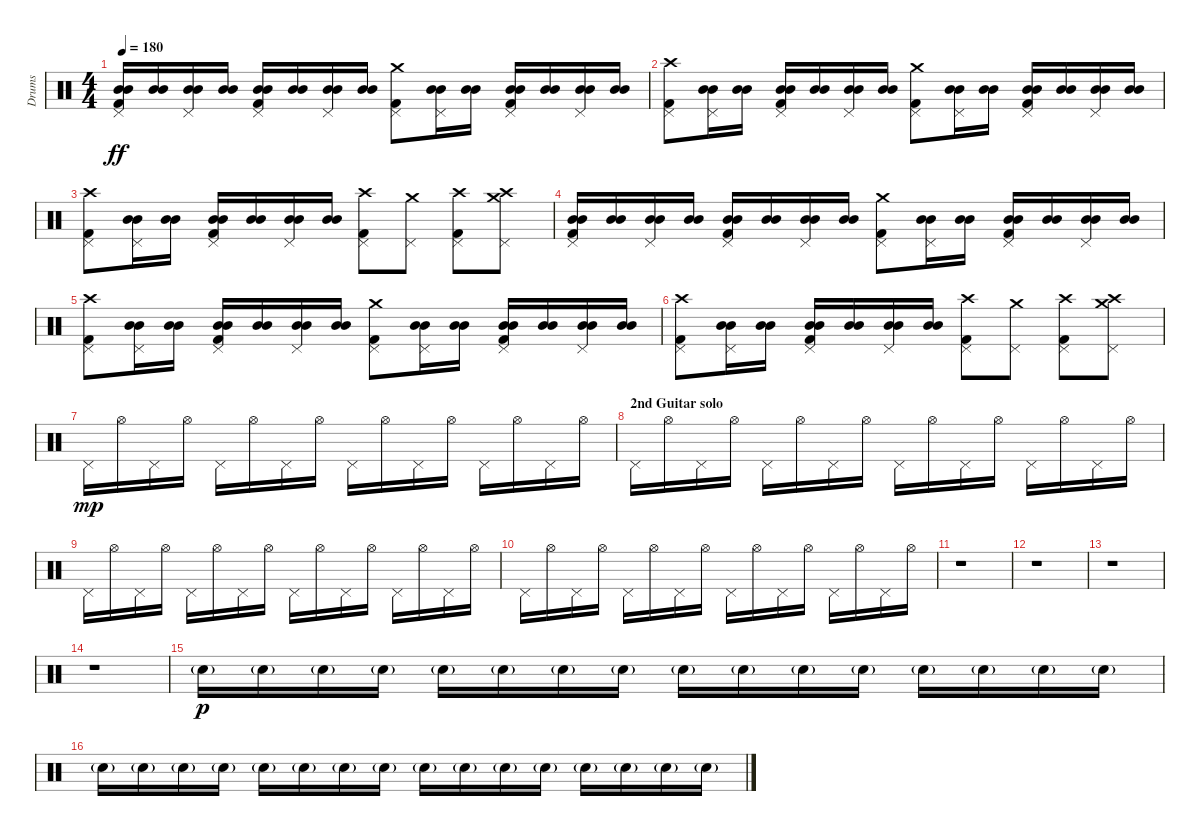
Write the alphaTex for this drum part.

\track ("Drums" "Drums") {instrument percussion}
\staff {score}
\articulation defaults
\ts (4 4)
\tempo 180
\clef neutral
\ks c
("Pedal Hi-Hat (hit)" "Mid Tom (hit)" "Kick (hit) 2" "Mid Tom (hit)").16{dy ff} ("Mid Tom (hit)" "Mid Tom (hit)").16 ("Pedal Hi-Hat (hit)" "Mid Tom (hit)" "Mid Tom (hit)").16 ("Mid Tom (hit)" "Mid Tom (hit)").16 ("Pedal Hi-Hat (hit)" "Mid Tom (hit)" "Kick (hit) 2" "Mid Tom (hit)").16 ("Mid Tom (hit)" "Mid Tom (hit)").16 ("Pedal Hi-Hat (hit)" "Mid Tom (hit)" "Mid Tom (hit)").16 ("Mid Tom (hit)" "Mid Tom (hit)").16 ("Pedal Hi-Hat (hit)" "Crash medium (hit)" "Kick (hit) 2").8 ("Pedal Hi-Hat (hit)" "Mid Tom (hit)" "Mid Tom (hit)").16 ("Mid Tom (hit)" "Mid Tom (hit)").16 ("Pedal Hi-Hat (hit)" "Mid Tom (hit)" "Kick (hit) 2" "Mid Tom (hit)").16 ("Mid Tom (hit)" "Mid Tom (hit)").16 ("Pedal Hi-Hat (hit)" "Mid Tom (hit)" "Mid Tom (hit)").16 ("Mid Tom (hit)" "Mid Tom (hit)").16 |
("Crash high (hit)" "Pedal Hi-Hat (hit)" "Kick (hit) 2").8 ("Pedal Hi-Hat (hit)" "Mid Tom (hit)" "Mid Tom (hit)").16 ("Mid Tom (hit)" "Mid Tom (hit)").16 ("Pedal Hi-Hat (hit)" "Mid Tom (hit)" "Kick (hit) 2" "Mid Tom (hit)").16 ("Mid Tom (hit)" "Mid Tom (hit)").16 ("Pedal Hi-Hat (hit)" "Mid Tom (hit)" "Mid Tom (hit)").16 ("Mid Tom (hit)" "Mid Tom (hit)").16 ("Pedal Hi-Hat (hit)" "Crash medium (hit)" "Kick (hit) 2").8 ("Pedal Hi-Hat (hit)" "Mid Tom (hit)" "Mid Tom (hit)").16 ("Mid Tom (hit)" "Mid Tom (hit)").16 ("Pedal Hi-Hat (hit)" "Mid Tom (hit)" "Kick (hit) 2" "Mid Tom (hit)").16 ("Mid Tom (hit)" "Mid Tom (hit)").16 ("Pedal Hi-Hat (hit)" "Mid Tom (hit)" "Mid Tom (hit)").16 ("Mid Tom (hit)" "Mid Tom (hit)").16 |
("Crash high (hit)" "Pedal Hi-Hat (hit)" "Kick (hit) 2").8 ("Pedal Hi-Hat (hit)" "Mid Tom (hit)" "Mid Tom (hit)").16 ("Mid Tom (hit)" "Mid Tom (hit)").16 ("Pedal Hi-Hat (hit)" "Mid Tom (hit)" "Kick (hit) 2" "Mid Tom (hit)").16 ("Mid Tom (hit)" "Mid Tom (hit)").16 ("Pedal Hi-Hat (hit)" "Mid Tom (hit)" "Mid Tom (hit)").16 ("Mid Tom (hit)" "Mid Tom (hit)").16 ("Crash high (hit)" "Pedal Hi-Hat (hit)" "Kick (hit) 2").8 ("Pedal Hi-Hat (hit)" "Crash medium (hit)").8 ("Crash high (hit)" "Pedal Hi-Hat (hit)" "Kick (hit) 2").8 ("Crash high (hit)" "Pedal Hi-Hat (hit)" "Crash medium (hit)").8 |
("Pedal Hi-Hat (hit)" "Mid Tom (hit)" "Kick (hit) 2" "Mid Tom (hit)").16 ("Mid Tom (hit)" "Mid Tom (hit)").16 ("Pedal Hi-Hat (hit)" "Mid Tom (hit)" "Mid Tom (hit)").16 ("Mid Tom (hit)" "Mid Tom (hit)").16 ("Pedal Hi-Hat (hit)" "Mid Tom (hit)" "Kick (hit) 2" "Mid Tom (hit)").16 ("Mid Tom (hit)" "Mid Tom (hit)").16 ("Pedal Hi-Hat (hit)" "Mid Tom (hit)" "Mid Tom (hit)").16 ("Mid Tom (hit)" "Mid Tom (hit)").16 ("Pedal Hi-Hat (hit)" "Crash medium (hit)" "Kick (hit) 2").8 ("Pedal Hi-Hat (hit)" "Mid Tom (hit)" "Mid Tom (hit)").16 ("Mid Tom (hit)" "Mid Tom (hit)").16 ("Pedal Hi-Hat (hit)" "Mid Tom (hit)" "Kick (hit) 2" "Mid Tom (hit)").16 ("Mid Tom (hit)" "Mid Tom (hit)").16 ("Pedal Hi-Hat (hit)" "Mid Tom (hit)" "Mid Tom (hit)").16 ("Mid Tom (hit)" "Mid Tom (hit)").16 |
("Crash high (hit)" "Pedal Hi-Hat (hit)" "Kick (hit) 2").8 ("Pedal Hi-Hat (hit)" "Mid Tom (hit)" "Mid Tom (hit)").16 ("Mid Tom (hit)" "Mid Tom (hit)").16 ("Pedal Hi-Hat (hit)" "Mid Tom (hit)" "Kick (hit) 2" "Mid Tom (hit)").16 ("Mid Tom (hit)" "Mid Tom (hit)").16 ("Pedal Hi-Hat (hit)" "Mid Tom (hit)" "Mid Tom (hit)").16 ("Mid Tom (hit)" "Mid Tom (hit)").16 ("Pedal Hi-Hat (hit)" "Crash medium (hit)" "Kick (hit) 2").8 ("Pedal Hi-Hat (hit)" "Mid Tom (hit)" "Mid Tom (hit)").16 ("Mid Tom (hit)" "Mid Tom (hit)").16 ("Pedal Hi-Hat (hit)" "Mid Tom (hit)" "Kick (hit) 2" "Mid Tom (hit)").16 ("Mid Tom (hit)" "Mid Tom (hit)").16 ("Pedal Hi-Hat (hit)" "Mid Tom (hit)" "Mid Tom (hit)").16 ("Mid Tom (hit)" "Mid Tom (hit)").16 |
("Crash high (hit)" "Pedal Hi-Hat (hit)" "Kick (hit) 2").8 ("Pedal Hi-Hat (hit)" "Mid Tom (hit)" "Mid Tom (hit)").16 ("Mid Tom (hit)" "Mid Tom (hit)").16 ("Pedal Hi-Hat (hit)" "Mid Tom (hit)" "Kick (hit) 2" "Mid Tom (hit)").16 ("Mid Tom (hit)" "Mid Tom (hit)").16 ("Pedal Hi-Hat (hit)" "Mid Tom (hit)" "Mid Tom (hit)").16 ("Mid Tom (hit)" "Mid Tom (hit)").16 ("Crash high (hit)" "Pedal Hi-Hat (hit)" "Kick (hit) 2").8 ("Pedal Hi-Hat (hit)" "Crash medium (hit)").8 ("Crash high (hit)" "Pedal Hi-Hat (hit)" "Kick (hit) 2").8 ("Crash high (hit)" "Pedal Hi-Hat (hit)" "Crash medium (hit)").8 |
"Pedal Hi-Hat (hit)".16{dy mp} "Hi-Hat (open)".16 "Pedal Hi-Hat (hit)".16 "Hi-Hat (open)".16 "Pedal Hi-Hat (hit)".16 "Hi-Hat (open)".16 "Pedal Hi-Hat (hit)".16 "Hi-Hat (open)".16 "Pedal Hi-Hat (hit)".16 "Hi-Hat (open)".16 "Pedal Hi-Hat (hit)".16 "Hi-Hat (open)".16 "Pedal Hi-Hat (hit)".16 "Hi-Hat (open)".16 "Pedal Hi-Hat (hit)".16 "Hi-Hat (open)".16 |
\section ("" "2nd Guitar solo")
"Pedal Hi-Hat (hit)".16 "Hi-Hat (open)".16 "Pedal Hi-Hat (hit)".16 "Hi-Hat (open)".16 "Pedal Hi-Hat (hit)".16 "Hi-Hat (open)".16 "Pedal Hi-Hat (hit)".16 "Hi-Hat (open)".16 "Pedal Hi-Hat (hit)".16 "Hi-Hat (open)".16 "Pedal Hi-Hat (hit)".16 "Hi-Hat (open)".16 "Pedal Hi-Hat (hit)".16 "Hi-Hat (open)".16 "Pedal Hi-Hat (hit)".16 "Hi-Hat (open)".16 |
"Pedal Hi-Hat (hit)".16 "Hi-Hat (open)".16 "Pedal Hi-Hat (hit)".16 "Hi-Hat (open)".16 "Pedal Hi-Hat (hit)".16 "Hi-Hat (open)".16 "Pedal Hi-Hat (hit)".16 "Hi-Hat (open)".16 "Pedal Hi-Hat (hit)".16 "Hi-Hat (open)".16 "Pedal Hi-Hat (hit)".16 "Hi-Hat (open)".16 "Pedal Hi-Hat (hit)".16 "Hi-Hat (open)".16 "Pedal Hi-Hat (hit)".16 "Hi-Hat (open)".16 |
"Pedal Hi-Hat (hit)".16 "Hi-Hat (open)".16 "Pedal Hi-Hat (hit)".16 "Hi-Hat (open)".16 "Pedal Hi-Hat (hit)".16 "Hi-Hat (open)".16 "Pedal Hi-Hat (hit)".16 "Hi-Hat (open)".16 "Pedal Hi-Hat (hit)".16 "Hi-Hat (open)".16 "Pedal Hi-Hat (hit)".16 "Hi-Hat (open)".16 "Pedal Hi-Hat (hit)".16 "Hi-Hat (open)".16 "Pedal Hi-Hat (hit)".16 "Hi-Hat (open)".16 |
r.1 |
r.1 |
r.1 |
r.1 |
"Electric Snare (hit)"{g}.16{dy p} "Electric Snare (hit)"{g}.16 "Electric Snare (hit)"{g}.16 "Electric Snare (hit)"{g}.16 "Electric Snare (hit)"{g}.16 "Electric Snare (hit)"{g}.16 "Electric Snare (hit)"{g}.16 "Electric Snare (hit)"{g}.16 "Electric Snare (hit)"{g}.16 "Electric Snare (hit)"{g}.16 "Electric Snare (hit)"{g}.16 "Electric Snare (hit)"{g}.16 "Electric Snare (hit)"{g}.16 "Electric Snare (hit)"{g}.16 "Electric Snare (hit)"{g}.16 "Electric Snare (hit)"{g}.16 |
"Electric Snare (hit)"{g}.16{volume 0} "Electric Snare (hit)"{g}.16 "Electric Snare (hit)"{g}.16 "Electric Snare (hit)"{g}.16 "Electric Snare (hit)"{g}.16 "Electric Snare (hit)"{g}.16 "Electric Snare (hit)"{g}.16 "Electric Snare (hit)"{g}.16 "Electric Snare (hit)"{g}.16 "Electric Snare (hit)"{g}.16 "Electric Snare (hit)"{g}.16 "Electric Snare (hit)"{g}.16 "Electric Snare (hit)"{g}.16 "Electric Snare (hit)"{g}.16 "Electric Snare (hit)"{g}.16 "Electric Snare (hit)"{g}.16
